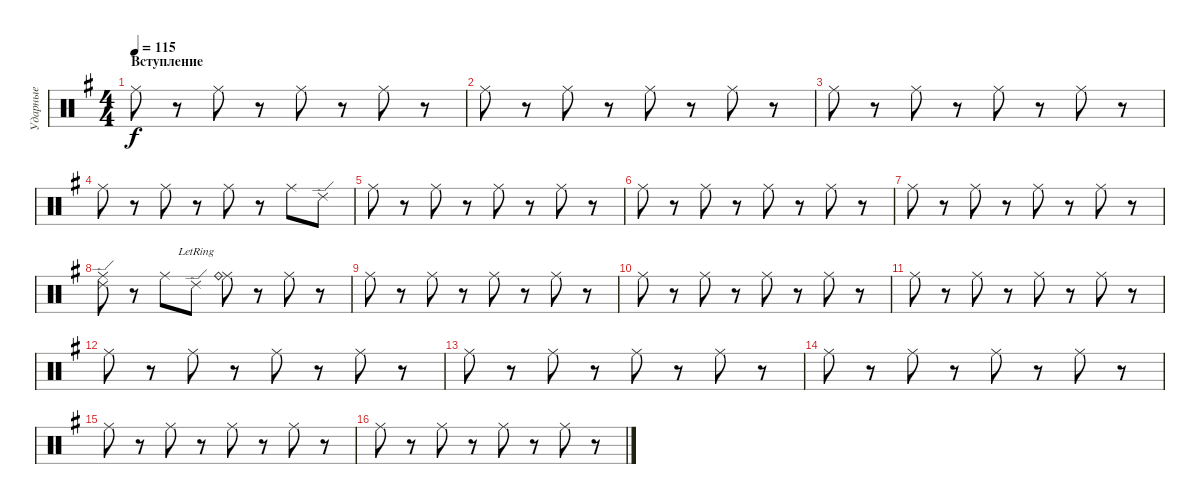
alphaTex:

\track ("Ударные" "Ударные") {instrument percussion}
\staff {score}
\articulation defaults
\ts (4 4)
\section ("" "Вступление")
\tempo 115
\clef neutral
\ks g "Ride (middle)".8{dy f}
r.8 "Ride (middle)".8 r.8 "Ride (middle)".8 r.8 "Ride (middle)".8 r.8 |
"Ride (middle)".8 r.8 "Ride (middle)".8 r.8 "Ride (middle)".8 r.8 "Ride (middle)".8 r.8 |
"Ride (middle)".8 r.8 "Ride (middle)".8 r.8 "Ride (middle)".8 r.8 "Ride (middle)".8 r.8 |
"Ride (middle)".8 r.8 "Ride (middle)".8 r.8 "Ride (middle)".8 r.8 "Ride (middle)".8 "Ride (edge) 2".8 |
"Ride (middle)".8 r.8 "Ride (middle)".8 r.8 "Ride (middle)".8 r.8 "Ride (middle)".8 r.8 |
"Ride (middle)".8 r.8 "Ride (middle)".8 r.8 "Ride (middle)".8 r.8 "Ride (middle)".8 r.8 |
"Ride (middle)".8 r.8 "Ride (middle)".8 r.8 "Ride (middle)".8 r.8 "Ride (middle)".8 r.8 |
("Ride (edge) 2" "Ride (middle)").8 r.8 "Ride (middle)".8 "Ride (edge) 2"{lr}.8 ("Ride (middle)" "Ride (bell)").8 r.8 "Ride (middle)".8 r.8 |
"Ride (middle)".8 r.8 "Ride (middle)".8 r.8 "Ride (middle)".8 r.8 "Ride (middle)".8 r.8 |
"Ride (middle)".8 r.8 "Ride (middle)".8 r.8 "Ride (middle)".8 r.8 "Ride (middle)".8 r.8 |
"Ride (middle)".8 r.8 "Ride (middle)".8 r.8 "Ride (middle)".8 r.8 "Ride (middle)".8 r.8 |
"Ride (middle)".8 r.8 "Ride (middle)".8 r.8 "Ride (middle)".8 r.8 "Ride (middle)".8 r.8 |
"Ride (middle)".8 r.8 "Ride (middle)".8 r.8 "Ride (middle)".8 r.8 "Ride (middle)".8 r.8 |
"Ride (middle)".8 r.8 "Ride (middle)".8 r.8 "Ride (middle)".8 r.8 "Ride (middle)".8 r.8 |
"Ride (middle)".8 r.8 "Ride (middle)".8 r.8 "Ride (middle)".8 r.8 "Ride (middle)".8 r.8 |
"Ride (middle)".8 r.8 "Ride (middle)".8 r.8 "Ride (middle)".8 r.8 "Ride (middle)".8 r.8
